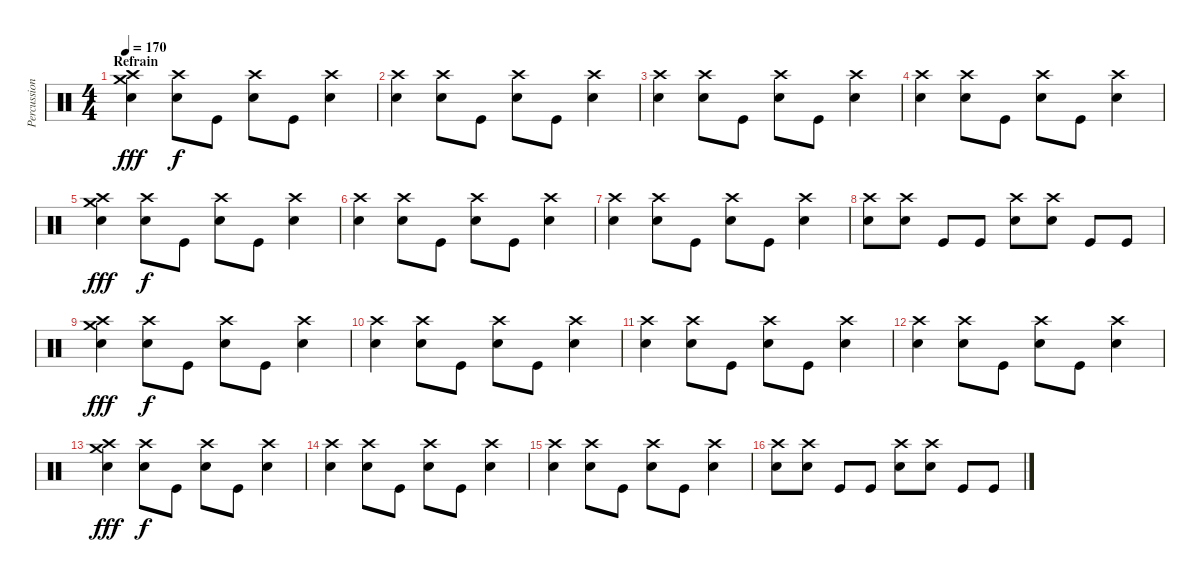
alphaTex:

\track ("Percussions" "Percussion") {instrument percussion}
\staff {score}
\articulation defaults
\ts (4 4)
\section ("" "Refrain")
\tempo 170
\clef neutral
\ks c
("Crash high (hit)" "Crash medium (hit)" "Electric Snare (hit)").4{dy fff} ("Crash high (hit)" "Electric Snare (hit)").8{dy f} "Kick (hit)".8 ("Crash high (hit)" "Electric Snare (hit)").8 "Kick (hit)".8 ("Crash high (hit)" "Electric Snare (hit)").4 |
("Crash high (hit)" "Electric Snare (hit)").4 ("Crash high (hit)" "Electric Snare (hit)").8 "Kick (hit)".8 ("Crash high (hit)" "Electric Snare (hit)").8 "Kick (hit)".8 ("Crash high (hit)" "Electric Snare (hit)").4 |
("Crash high (hit)" "Electric Snare (hit)").4 ("Crash high (hit)" "Electric Snare (hit)").8 "Kick (hit)".8 ("Crash high (hit)" "Electric Snare (hit)").8 "Kick (hit)".8 ("Crash high (hit)" "Electric Snare (hit)").4 |
("Crash high (hit)" "Electric Snare (hit)").4 ("Crash high (hit)" "Electric Snare (hit)").8 "Kick (hit)".8 ("Crash high (hit)" "Electric Snare (hit)").8 "Kick (hit)".8 ("Crash high (hit)" "Electric Snare (hit)").4 |
("Crash high (hit)" "Crash medium (hit)" "Electric Snare (hit)").4{dy fff} ("Crash high (hit)" "Electric Snare (hit)").8{dy f} "Kick (hit)".8 ("Crash high (hit)" "Electric Snare (hit)").8 "Kick (hit)".8 ("Crash high (hit)" "Electric Snare (hit)").4 |
("Crash high (hit)" "Electric Snare (hit)").4 ("Crash high (hit)" "Electric Snare (hit)").8 "Kick (hit)".8 ("Crash high (hit)" "Electric Snare (hit)").8 "Kick (hit)".8 ("Crash high (hit)" "Electric Snare (hit)").4 |
("Crash high (hit)" "Electric Snare (hit)").4 ("Crash high (hit)" "Electric Snare (hit)").8 "Kick (hit)".8 ("Crash high (hit)" "Electric Snare (hit)").8 "Kick (hit)".8 ("Crash high (hit)" "Electric Snare (hit)").4 |
("Crash high (hit)" "Electric Snare (hit)").8 ("Crash high (hit)" "Electric Snare (hit)").8 "Kick (hit)".8 "Kick (hit)".8 ("Crash high (hit)" "Electric Snare (hit)").8 ("Crash high (hit)" "Electric Snare (hit)").8 "Kick (hit)".8 "Kick (hit)".8 |
("Crash high (hit)" "Crash medium (hit)" "Electric Snare (hit)").4{dy fff} ("Crash high (hit)" "Electric Snare (hit)").8{dy f} "Kick (hit)".8 ("Crash high (hit)" "Electric Snare (hit)").8 "Kick (hit)".8 ("Crash high (hit)" "Electric Snare (hit)").4 |
("Crash high (hit)" "Electric Snare (hit)").4 ("Crash high (hit)" "Electric Snare (hit)").8 "Kick (hit)".8 ("Crash high (hit)" "Electric Snare (hit)").8 "Kick (hit)".8 ("Crash high (hit)" "Electric Snare (hit)").4 |
("Crash high (hit)" "Electric Snare (hit)").4 ("Crash high (hit)" "Electric Snare (hit)").8 "Kick (hit)".8 ("Crash high (hit)" "Electric Snare (hit)").8 "Kick (hit)".8 ("Crash high (hit)" "Electric Snare (hit)").4 |
("Crash high (hit)" "Electric Snare (hit)").4 ("Crash high (hit)" "Electric Snare (hit)").8 "Kick (hit)".8 ("Crash high (hit)" "Electric Snare (hit)").8 "Kick (hit)".8 ("Crash high (hit)" "Electric Snare (hit)").4 |
("Crash high (hit)" "Crash medium (hit)" "Electric Snare (hit)").4{dy fff} ("Crash high (hit)" "Electric Snare (hit)").8{dy f} "Kick (hit)".8 ("Crash high (hit)" "Electric Snare (hit)").8 "Kick (hit)".8 ("Crash high (hit)" "Electric Snare (hit)").4 |
("Crash high (hit)" "Electric Snare (hit)").4 ("Crash high (hit)" "Electric Snare (hit)").8 "Kick (hit)".8 ("Crash high (hit)" "Electric Snare (hit)").8 "Kick (hit)".8 ("Crash high (hit)" "Electric Snare (hit)").4 |
("Crash high (hit)" "Electric Snare (hit)").4 ("Crash high (hit)" "Electric Snare (hit)").8 "Kick (hit)".8 ("Crash high (hit)" "Electric Snare (hit)").8 "Kick (hit)".8 ("Crash high (hit)" "Electric Snare (hit)").4 |
("Crash high (hit)" "Electric Snare (hit)").8 ("Crash high (hit)" "Electric Snare (hit)").8 "Kick (hit)".8 "Kick (hit)".8 ("Crash high (hit)" "Electric Snare (hit)").8 ("Crash high (hit)" "Electric Snare (hit)").8 "Kick (hit)".8 "Kick (hit)".8
